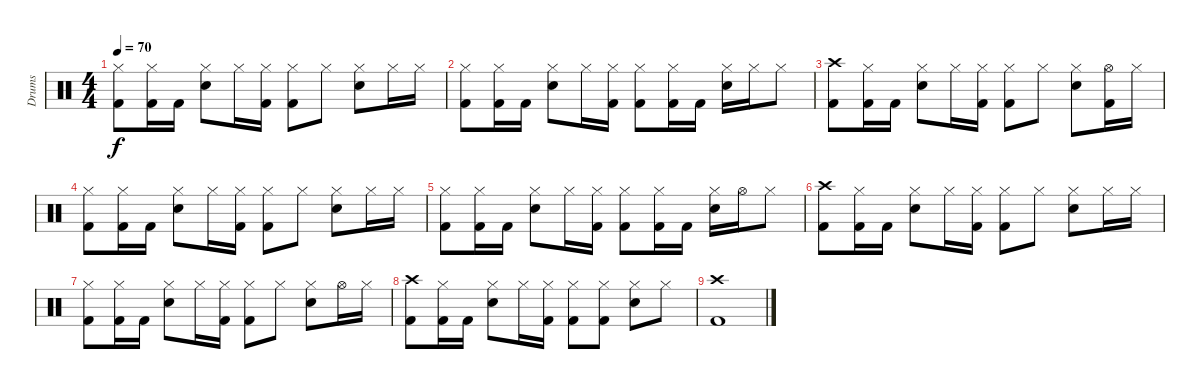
\track ("Drums" "Drums") {instrument percussion}
\staff {score}
\articulation defaults
\ts (4 4)
\tempo 70
\clef neutral
\ks c
("Hi-Hat (closed)" "Kick (hit) 2").8{dy f} ("Hi-Hat (closed)" "Kick (hit) 2").16 "Kick (hit) 2".16 ("Hi-Hat (closed)" "Electric Snare (hit)").8 "Hi-Hat (closed)".16 ("Hi-Hat (closed)" "Kick (hit) 2").16 ("Hi-Hat (closed)" "Kick (hit) 2").8 "Hi-Hat (closed)".8 ("Hi-Hat (closed)" "Electric Snare (hit)").8 "Hi-Hat (closed)".16 "Hi-Hat (closed)".16 |
("Hi-Hat (closed)" "Kick (hit) 2").8 ("Hi-Hat (closed)" "Kick (hit) 2").16 "Kick (hit) 2".16 ("Hi-Hat (closed)" "Electric Snare (hit)").8 "Hi-Hat (closed)".16 ("Hi-Hat (closed)" "Kick (hit) 2").16 ("Hi-Hat (closed)" "Kick (hit) 2").8 ("Hi-Hat (closed)" "Kick (hit) 2").16 "Kick (hit) 2".16 ("Hi-Hat (closed)" "Electric Snare (hit)").16 "Hi-Hat (closed)".16 "Hi-Hat (closed)".8 |
("Crash high (hit)" "Kick (hit) 2").8 ("Hi-Hat (closed)" "Kick (hit) 2").16 "Kick (hit) 2".16 ("Hi-Hat (closed)" "Electric Snare (hit)").8 "Hi-Hat (closed)".16 ("Hi-Hat (closed)" "Kick (hit) 2").16 ("Hi-Hat (closed)" "Kick (hit) 2").8 "Hi-Hat (closed)".8 ("Hi-Hat (closed)" "Electric Snare (hit)").8 ("Hi-Hat (open)" "Kick (hit) 2").16 "Hi-Hat (closed)".16 |
("Hi-Hat (closed)" "Kick (hit) 2").8 ("Hi-Hat (closed)" "Kick (hit) 2").16 "Kick (hit) 2".16 ("Hi-Hat (closed)" "Electric Snare (hit)").8 "Hi-Hat (closed)".16 ("Hi-Hat (closed)" "Kick (hit) 2").16 ("Hi-Hat (closed)" "Kick (hit) 2").8 "Hi-Hat (closed)".8 ("Hi-Hat (closed)" "Electric Snare (hit)").8 "Hi-Hat (closed)".16 "Hi-Hat (closed)".16 |
("Hi-Hat (closed)" "Kick (hit) 2").8 ("Hi-Hat (closed)" "Kick (hit) 2").16 "Kick (hit) 2".16 ("Hi-Hat (closed)" "Electric Snare (hit)").8 "Hi-Hat (closed)".16 ("Hi-Hat (closed)" "Kick (hit) 2").16 ("Hi-Hat (closed)" "Kick (hit) 2").8 ("Hi-Hat (closed)" "Kick (hit) 2").16 "Kick (hit) 2".16 ("Hi-Hat (closed)" "Electric Snare (hit)").16 "Hi-Hat (open)".16 "Hi-Hat (closed)".8 |
("Crash high (hit)" "Kick (hit) 2").8 ("Hi-Hat (closed)" "Kick (hit) 2").16 "Kick (hit) 2".16 ("Hi-Hat (closed)" "Electric Snare (hit)").8 "Hi-Hat (closed)".16 ("Hi-Hat (closed)" "Kick (hit) 2").16 ("Hi-Hat (closed)" "Kick (hit) 2").8 "Hi-Hat (closed)".8 ("Hi-Hat (closed)" "Electric Snare (hit)").8 "Hi-Hat (closed)".16 "Hi-Hat (closed)".16 |
("Hi-Hat (closed)" "Kick (hit) 2").8 ("Hi-Hat (closed)" "Kick (hit) 2").16 "Kick (hit) 2".16 ("Hi-Hat (closed)" "Electric Snare (hit)").8 "Hi-Hat (closed)".16 ("Hi-Hat (closed)" "Kick (hit) 2").16 ("Hi-Hat (closed)" "Kick (hit) 2").8 "Hi-Hat (closed)".8 ("Hi-Hat (closed)" "Electric Snare (hit)").8 "Hi-Hat (open)".16 "Hi-Hat (closed)".16 |
("Crash high (hit)" "Kick (hit) 2").8 ("Hi-Hat (closed)" "Kick (hit) 2").16 "Kick (hit) 2".16 ("Hi-Hat (closed)" "Electric Snare (hit)").8 "Hi-Hat (closed)".16 ("Hi-Hat (closed)" "Kick (hit) 2").16 ("Hi-Hat (closed)" "Kick (hit) 2").8 ("Hi-Hat (closed)" "Kick (hit) 2").8 ("Hi-Hat (closed)" "Electric Snare (hit)").8 "Hi-Hat (closed)".8 |
("Crash high (hit)" "Kick (hit) 2").1
